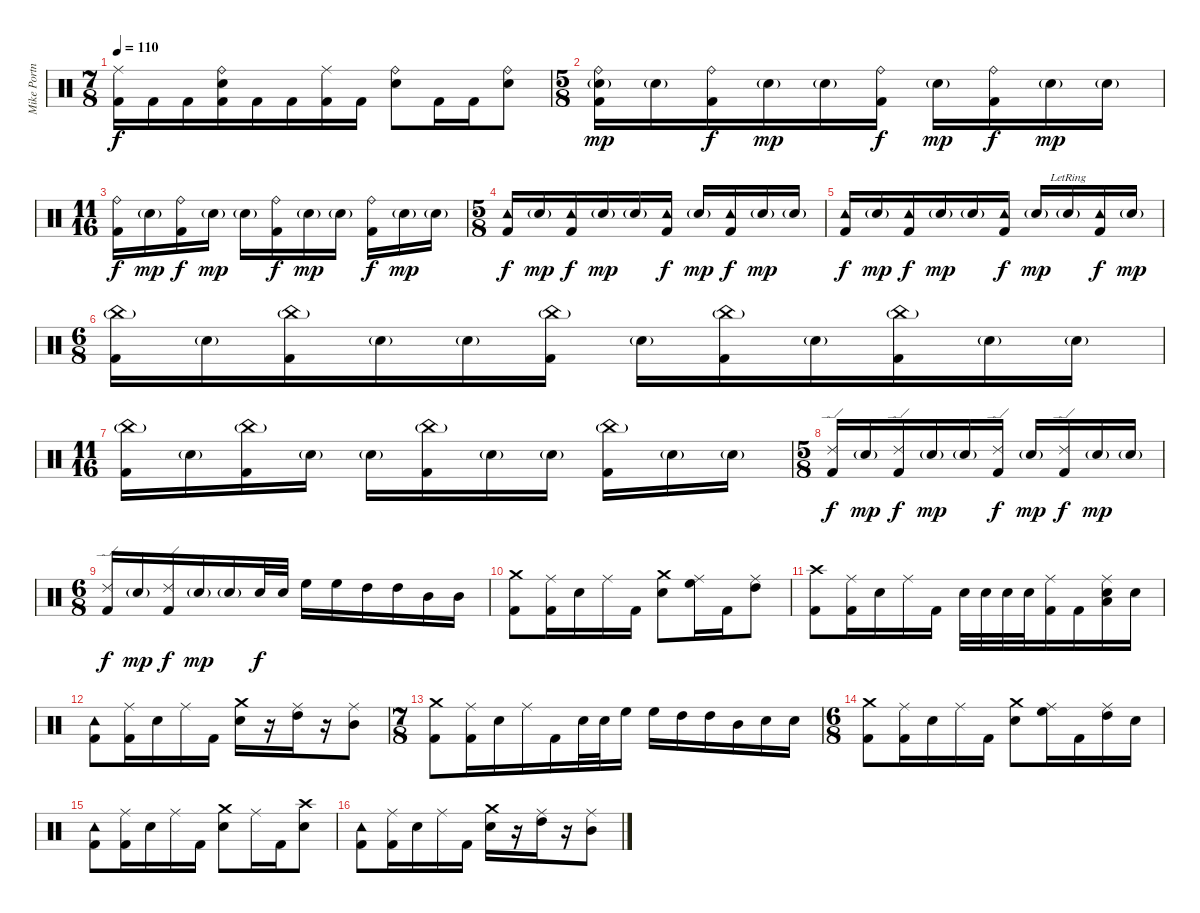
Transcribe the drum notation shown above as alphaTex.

\track ("Mike Portnoy" "Mike Portn") {instrument percussion}
\staff {score}
\articulation defaults
\ts (7 8)
\tempo 110
\clef neutral
\ks c
("Ride (middle)" "Kick (hit) 2").16{dy f} "Kick (hit) 2".16 "Kick (hit) 2".16 ("Ride (bell)" "Snare (hit) 2" "Kick (hit) 2").16 "Kick (hit) 2".16 "Kick (hit) 2".16 ("Ride (middle)" "Kick (hit) 2").16 "Kick (hit) 2".16 ("Ride (bell)" "Snare (hit) 2").8 "Kick (hit) 2".16 "Kick (hit) 2".16 ("Ride (bell)" "Snare (hit) 2").8 |
\ts (5 8)
("Ride (bell)" "Snare (hit) 2"{g} "Kick (hit) 2").16{dy mp} "Snare (hit) 2"{g}.16 ("Ride (bell)" "Kick (hit) 2").16{dy f} "Snare (hit) 2"{g}.16{dy mp} "Snare (hit) 2"{g}.16 ("Ride (bell)" "Kick (hit) 2").16{dy f} "Snare (hit) 2"{g}.16{dy mp} ("Ride (bell)" "Kick (hit) 2").16{dy f} "Snare (hit) 2"{g}.16{dy mp} "Snare (hit) 2"{g}.16 |
\ts (11 16)
("Ride (bell)" "Kick (hit) 2").16{dy f} "Snare (hit) 2"{g}.16{dy mp} ("Ride (bell)" "Kick (hit) 2").16{dy f} "Snare (hit) 2"{g}.16{dy mp} "Snare (hit) 2"{g}.16 ("Ride (bell)" "Kick (hit) 2").16{dy f} "Snare (hit) 2"{g}.16{dy mp} "Snare (hit) 2"{g}.16 ("Ride (bell)" "Kick (hit) 2").16{dy f} "Snare (hit) 2"{g}.16{dy mp} "Snare (hit) 2"{g}.16 |
\ts (5 8)
("Tambourine (hit)" "Kick (hit) 2").16{dy f} "Snare (hit) 2"{g}.16{dy mp} ("Tambourine (hit)" "Kick (hit) 2").16{dy f} "Snare (hit) 2"{g}.16{dy mp} "Snare (hit) 2"{g}.16 ("Tambourine (hit)" "Kick (hit) 2").16{dy f} "Snare (hit) 2"{g}.16{dy mp} ("Tambourine (hit)" "Kick (hit) 2").16{dy f} "Snare (hit) 2"{g}.16{dy mp} "Snare (hit) 2"{g}.16 |
("Tambourine (hit)" "Kick (hit) 2").16{dy f} "Snare (hit) 2"{g}.16{dy mp} ("Tambourine (hit)" "Kick (hit) 2").16{dy f} "Snare (hit) 2"{g}.16{dy mp} "Snare (hit) 2"{g}.16 ("Tambourine (hit)" "Kick (hit) 2").16{dy f} "Snare (hit) 2"{g}.16{dy mp} "Snare (hit) 2"{g lr}.16 ("Tambourine (hit)" "Kick (hit) 2").16{dy f} "Snare (hit) 2"{g}.16{dy mp} |
\ts (6 8)
("China (hit)"{g} "Kick (hit) 2").16 "Snare (hit) 2"{g}.16 ("China (hit)"{g} "Kick (hit) 2").16 "Snare (hit) 2"{g}.16 "Snare (hit) 2"{g}.16 ("China (hit)"{g} "Kick (hit) 2").16 "Snare (hit) 2"{g}.16 ("China (hit)"{g} "Kick (hit) 2").16 "Snare (hit) 2"{g}.16 ("China (hit)"{g} "Kick (hit) 2").16 "Snare (hit) 2"{g}.16 "Snare (hit) 2"{g}.16 |
\ts (11 16)
("China (hit)"{g} "Kick (hit) 2").16 "Snare (hit) 2"{g}.16 ("China (hit)"{g} "Kick (hit) 2").16 "Snare (hit) 2"{g}.16 "Snare (hit) 2"{g}.16 ("China (hit)"{g} "Kick (hit) 2").16 "Snare (hit) 2"{g}.16 "Snare (hit) 2"{g}.16 ("China (hit)"{g} "Kick (hit) 2").16 "Snare (hit) 2"{g}.16 "Snare (hit) 2"{g}.16 |
\ts (5 8)
("Ride (edge) 2" "Kick (hit) 2").16{dy f} "Snare (hit) 2"{g}.16{dy mp} ("Ride (edge) 2" "Kick (hit) 2").16{dy f} "Snare (hit) 2"{g}.16{dy mp} "Snare (hit) 2"{g}.16 ("Ride (edge) 2" "Kick (hit) 2").16{dy f} "Snare (hit) 2"{g}.16{dy mp} ("Ride (edge) 2" "Kick (hit) 2").16{dy f} "Snare (hit) 2"{g}.16{dy mp} "Snare (hit) 2"{g}.16 |
\ts (6 8)
("Ride (edge) 2" "Kick (hit) 2").16{dy f} "Snare (hit) 2"{g}.16{dy mp} ("Ride (edge) 2" "Kick (hit) 2").16{dy f} "Snare (hit) 2"{g}.16{dy mp} "Snare (hit) 2"{g}.16 "Snare (hit) 2".32{dy f} "Snare (hit) 2".32 "High Floor Tom (hit)".16 "High Floor Tom (hit)".16 "High Tom (hit)".16 "High Tom (hit)".16 "Mid Tom (hit)".16 "Mid Tom (hit)".16 |
("Crash medium (hit)" "Kick (hit) 2").8 ("Ride (middle)" "Kick (hit) 2").16 "Snare (hit) 2".16 "Ride (middle)".16 "Kick (hit) 2".16 ("Crash medium (hit)" "Snare (hit) 2").8 ("Ride (middle)" "High Floor Tom (hit)").16 "Kick (hit) 2".16 ("Ride (middle)" "High Tom (hit)").8 |
("Crash high (hit)" "Kick (hit) 2").8 ("Ride (middle)" "Kick (hit) 2").16 "Snare (hit) 2".16 "Ride (middle)".16 "Kick (hit) 2".16 "Snare (hit) 2".32 "Snare (hit) 2".32 "Snare (hit) 2".32 "Snare (hit) 2".32 ("Ride (middle)" "Kick (hit) 2").16 "Kick (hit) 2".16 ("Ride (middle)" "Low Floor Tom (hit)" "Snare (hit) 2").16 "Snare (hit) 2".16 |
("Tambourine (hit)" "Kick (hit) 2").8 ("Ride (middle)" "Kick (hit) 2").16 "Snare (hit) 2".16 "Ride (middle)".16 "Kick (hit) 2".16 ("Crash medium (hit)" "Snare (hit) 2").16 r.16 ("Ride (middle)" "High Tom (hit)").16 r.16 ("Ride (middle)" "Mid Tom (hit)").8 |
\ts (7 8)
("Crash medium (hit)" "Kick (hit) 2").8 ("Ride (middle)" "Kick (hit) 2").16 "Snare (hit) 2".16 "Ride (middle)".16 "Kick (hit) 2".16 "Snare (hit) 2".32 "Snare (hit) 2".32 "High Floor Tom (hit)".16 "High Floor Tom (hit)".16 "High Tom (hit)".16 "High Tom (hit)".16 "Mid Tom (hit)".16 "Snare (hit) 2".16 "Snare (hit) 2".16 |
\ts (6 8)
("Crash medium (hit)" "Kick (hit) 2").8 ("Ride (middle)" "Kick (hit) 2").16 "Snare (hit) 2".16 "Ride (middle)".16 "Kick (hit) 2".16 ("Crash medium (hit)" "Snare (hit) 2").8 ("Ride (middle)" "High Floor Tom (hit)").16 "Kick (hit) 2".16 ("Ride (middle)" "High Tom (hit)").16 "Snare (hit) 2".16 |
("Tambourine (hit)" "Kick (hit) 2").8 ("Ride (middle)" "Kick (hit) 2").16 "Snare (hit) 2".16 "Ride (middle)".16 "Kick (hit) 2".16 ("Crash medium (hit)" "Snare (hit) 2").8 "Ride (middle)".16 "Kick (hit) 2".16 ("Crash high (hit)" "Snare (hit) 2").8 |
("Tambourine (hit)" "Kick (hit) 2").8 ("Ride (middle)" "Kick (hit) 2").16 "Snare (hit) 2".16 "Ride (middle)".16 "Kick (hit) 2".16 ("Crash medium (hit)" "Snare (hit) 2").16 r.16 ("Ride (middle)" "High Tom (hit)").16 r.16 ("Ride (middle)" "Mid Tom (hit)").8
